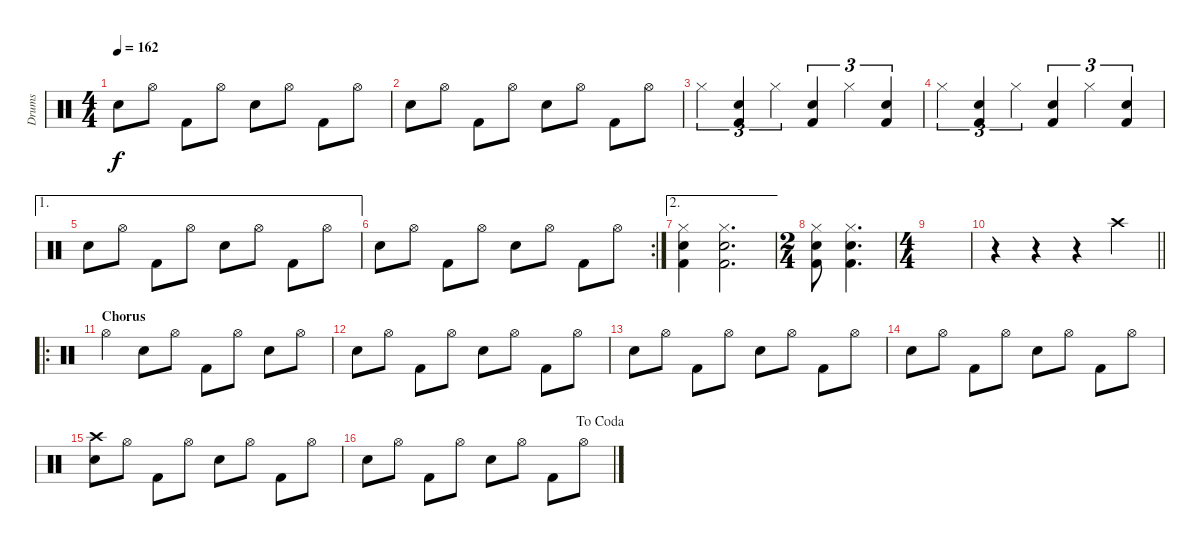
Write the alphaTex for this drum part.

\track ("Drums" "Drums") {instrument percussion}
\staff {score}
\articulation defaults
\ts (4 4)
\tempo 162
\clef neutral
\ks c "Electric Snare (hit)".8{dy f} "Hi-Hat (open)".8 "Kick (hit) 2".8 "Hi-Hat (open)".8 "Electric Snare (hit)".8 "Hi-Hat (open)".8 "Kick (hit) 2".8 "Hi-Hat (open)".8
|
"Electric Snare (hit)".8 "Hi-Hat (open)".8 "Kick (hit) 2".8 "Hi-Hat (open)".8 "Electric Snare (hit)".8 "Hi-Hat (open)".8 "Kick (hit) 2".8 "Hi-Hat (open)".8 |
"Hi-Hat (closed)".4{tu (3 2)} ("Electric Snare (hit)" "Kick (hit) 2").4{tu (3 2)} "Hi-Hat (closed)".4{tu (3 2)} ("Electric Snare (hit)" "Kick (hit) 2").4{tu (3 2)} "Hi-Hat (closed)".4{tu (3 2)} ("Electric Snare (hit)" "Kick (hit) 2").4{tu (3 2)} |
"Hi-Hat (closed)".4{tu (3 2)} ("Electric Snare (hit)" "Kick (hit) 2").4{tu (3 2)} "Hi-Hat (closed)".4{tu (3 2)} ("Electric Snare (hit)" "Kick (hit) 2").4{tu (3 2)} "Hi-Hat (closed)".4{tu (3 2)} ("Electric Snare (hit)" "Kick (hit) 2").4{tu (3 2)} |
\ae 1 "Electric Snare (hit)".8 "Hi-Hat (open)".8 "Kick (hit) 2".8 "Hi-Hat (open)".8 "Electric Snare (hit)".8 "Hi-Hat (open)".8 "Kick (hit) 2".8 "Hi-Hat (open)".8
|
\rc 2 "Electric Snare (hit)".8 "Hi-Hat (open)".8 "Kick (hit) 2".8 "Hi-Hat (open)".8 "Electric Snare (hit)".8 "Hi-Hat (open)".8 "Kick (hit) 2".8 "Hi-Hat (open)".8
|
\ae 2
("Hi-Hat (closed)" "Electric Snare (hit)" "Kick (hit) 2").4 ("Hi-Hat (closed)" "Electric Snare (hit)" "Kick (hit) 2").2{d} |
\ts (2 4)
("Hi-Hat (closed)" "Electric Snare (hit)" "Kick (hit) 2").8 ("Hi-Hat (closed)" "Electric Snare (hit)" "Kick (hit) 2").4{d} |
\ts (4 4)
|
\barLineRight lightlight
r.4 r.4 r.4 "Crash high (hit)".4 |
\ro
\section ("" "Chorus")
"Hi-Hat (open)".4 "Electric Snare (hit)".8 "Hi-Hat (open)".8 "Kick (hit) 2".8 "Hi-Hat (open)".8 "Electric Snare (hit)".8 "Hi-Hat (open)".8 |
"Electric Snare (hit)".8 "Hi-Hat (open)".8 "Kick (hit) 2".8 "Hi-Hat (open)".8 "Electric Snare (hit)".8 "Hi-Hat (open)".8 "Kick (hit) 2".8 "Hi-Hat (open)".8 |
"Electric Snare (hit)".8 "Hi-Hat (open)".8 "Kick (hit) 2".8 "Hi-Hat (open)".8 "Electric Snare (hit)".8 "Hi-Hat (open)".8 "Kick (hit) 2".8 "Hi-Hat (open)".8 |
"Electric Snare (hit)".8 "Hi-Hat (open)".8 "Kick (hit) 2".8 "Hi-Hat (open)".8 "Electric Snare (hit)".8 "Hi-Hat (open)".8 "Kick (hit) 2".8 "Hi-Hat (open)".8 |
("Crash high (hit)" "Electric Snare (hit)").8 "Hi-Hat (open)".8 "Kick (hit) 2".8 "Hi-Hat (open)".8 "Electric Snare (hit)".8 "Hi-Hat (open)".8 "Kick (hit) 2".8 "Hi-Hat (open)".8 |
\jump dacoda "Electric Snare (hit)".8 "Hi-Hat (open)".8 "Kick (hit) 2".8 "Hi-Hat (open)".8 "Electric Snare (hit)".8 "Hi-Hat (open)".8 "Kick (hit) 2".8 "Hi-Hat (open)".8
